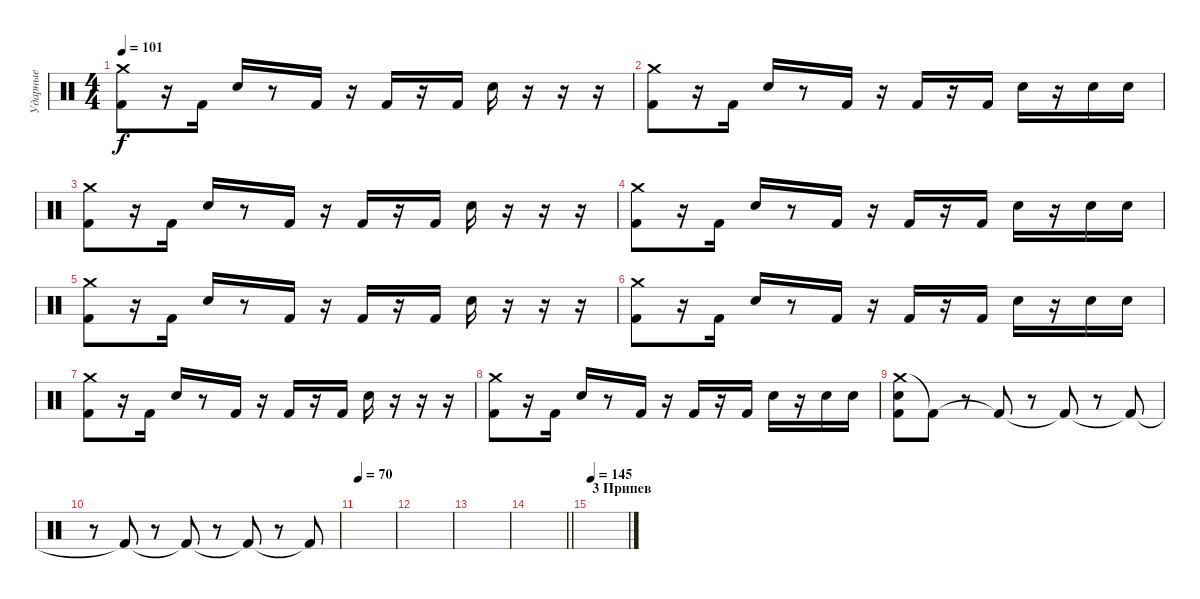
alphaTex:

\track ("Ударные" "Ударные") {instrument percussion}
\staff {score}
\articulation defaults
\ts (4 4)
\tempo 101
\clef neutral
\ks c
("Crash medium (hit)" "Kick (hit) 2").8{dy f} r.16 "Kick (hit) 2".16 "Snare (hit) 2".16 r.8 "Kick (hit) 2".16 r.16 "Kick (hit) 2".16 r.16 "Kick (hit) 2".16 "Snare (hit) 2".16 r.16 r.16 r.16 |
("Crash medium (hit)" "Kick (hit) 2").8 r.16 "Kick (hit) 2".16 "Snare (hit) 2".16 r.8 "Kick (hit) 2".16 r.16 "Kick (hit) 2".16 r.16 "Kick (hit) 2".16 "Snare (hit) 2".16 r.16 "Snare (hit) 2".16 "Snare (hit) 2".16 |
("Crash medium (hit)" "Kick (hit) 2").8 r.16 "Kick (hit) 2".16 "Snare (hit) 2".16 r.8 "Kick (hit) 2".16 r.16 "Kick (hit) 2".16 r.16 "Kick (hit) 2".16 "Snare (hit) 2".16 r.16 r.16 r.16 |
("Crash medium (hit)" "Kick (hit) 2").8 r.16 "Kick (hit) 2".16 "Snare (hit) 2".16 r.8 "Kick (hit) 2".16 r.16 "Kick (hit) 2".16 r.16 "Kick (hit) 2".16 "Snare (hit) 2".16 r.16 "Snare (hit) 2".16 "Snare (hit) 2".16 |
("Crash medium (hit)" "Kick (hit) 2").8 r.16 "Kick (hit) 2".16 "Snare (hit) 2".16 r.8 "Kick (hit) 2".16 r.16 "Kick (hit) 2".16 r.16 "Kick (hit) 2".16 "Snare (hit) 2".16 r.16 r.16 r.16 |
("Crash medium (hit)" "Kick (hit) 2").8 r.16 "Kick (hit) 2".16 "Snare (hit) 2".16 r.8 "Kick (hit) 2".16 r.16 "Kick (hit) 2".16 r.16 "Kick (hit) 2".16 "Snare (hit) 2".16 r.16 "Snare (hit) 2".16 "Snare (hit) 2".16 |
("Crash medium (hit)" "Kick (hit) 2").8 r.16 "Kick (hit) 2".16 "Snare (hit) 2".16 r.8 "Kick (hit) 2".16 r.16 "Kick (hit) 2".16 r.16 "Kick (hit) 2".16 "Snare (hit) 2".16 r.16 r.16 r.16 |
("Crash medium (hit)" "Kick (hit) 2").8 r.16 "Kick (hit) 2".16 "Snare (hit) 2".16 r.8 "Kick (hit) 2".16 r.16 "Kick (hit) 2".16 r.16 "Kick (hit) 2".16 "Snare (hit) 2".16 r.16 "Snare (hit) 2".16 "Snare (hit) 2".16 |
("Crash medium (hit)" "Snare (hit) 2" "Kick (hit) 2").8 "Kick (hit) 2"{t}.8 r.8 "Kick (hit) 2"{t}.8 r.8 "Kick (hit) 2"{t}.8 r.8 "Kick (hit) 2"{t}.8 |
r.8 "Kick (hit) 2"{t}.8 r.8 "Kick (hit) 2"{t}.8 r.8 "Kick (hit) 2"{t}.8 r.8 "Kick (hit) 2"{t}.8 |
\tempo 75
\tempo 70
|
|
|
\barLineRight lightlight
|
\section ("" "3 Припев")
\tempo 145
